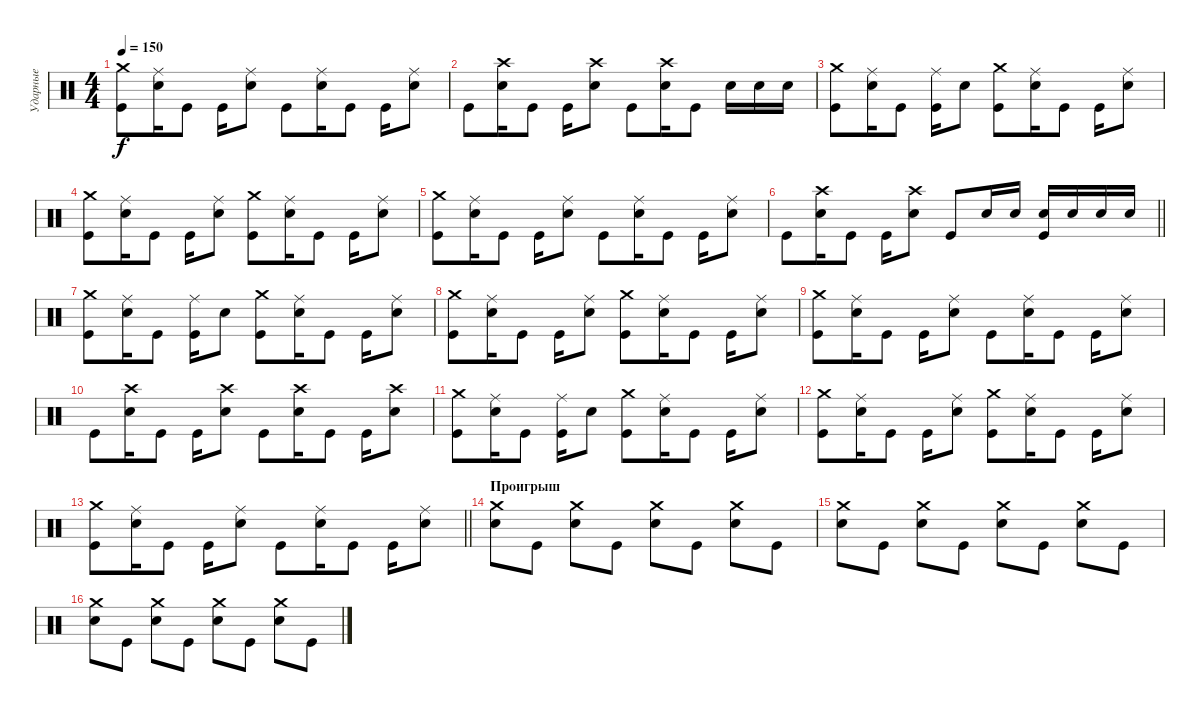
\track ("Ударные" "Ударные") {instrument percussion}
\staff {score}
\articulation defaults
\ts (4 4)
\tempo 150
\clef neutral
\ks c
("Crash medium (hit)" "Kick (hit)").8{dy f} ("Ride (middle)" "Electric Snare (hit)").16 "Kick (hit)".8 "Kick (hit)".16 ("Ride (middle)" "Electric Snare (hit)").8 "Kick (hit)".8 ("Ride (middle)" "Electric Snare (hit)").16 "Kick (hit)".8 "Kick (hit)".16 ("Ride (middle)" "Electric Snare (hit)").8 |
"Kick (hit)".8 ("Crash high (hit)" "Electric Snare (hit)").16 "Kick (hit)".8 "Kick (hit)".16 ("Crash high (hit)" "Electric Snare (hit)").8 "Kick (hit)".8 ("Crash high (hit)" "Electric Snare (hit)").16 "Kick (hit)".8 "Electric Snare (hit)".16 "Electric Snare (hit)".16 "Electric Snare (hit)".16 |
("Crash medium (hit)" "Kick (hit)").8 ("Ride (middle)" "Electric Snare (hit)").16 "Kick (hit)".8 ("Ride (middle)" "Kick (hit)").16 "Electric Snare (hit)".8 ("Crash medium (hit)" "Kick (hit)").8 ("Ride (middle)" "Electric Snare (hit)").16 "Kick (hit)".8 "Kick (hit)".16 ("Ride (middle)" "Electric Snare (hit)").8 |
("Crash medium (hit)" "Kick (hit)").8 ("Ride (middle)" "Electric Snare (hit)").16 "Kick (hit)".8 "Kick (hit)".16 ("Ride (middle)" "Electric Snare (hit)").8 ("Crash medium (hit)" "Kick (hit)").8 ("Ride (middle)" "Electric Snare (hit)").16 "Kick (hit)".8 "Kick (hit)".16 ("Ride (middle)" "Electric Snare (hit)").8 |
("Crash medium (hit)" "Kick (hit)").8 ("Ride (middle)" "Electric Snare (hit)").16 "Kick (hit)".8 "Kick (hit)".16 ("Ride (middle)" "Electric Snare (hit)").8 "Kick (hit)".8 ("Ride (middle)" "Electric Snare (hit)").16 "Kick (hit)".8 "Kick (hit)".16 ("Ride (middle)" "Electric Snare (hit)").8 |
\barLineRight lightlight "Kick (hit)".8
("Crash high (hit)" "Electric Snare (hit)").16 "Kick (hit)".8 "Kick (hit)".16 ("Crash high (hit)" "Electric Snare (hit)").8 "Kick (hit)".8 "Electric Snare (hit)".16 "Electric Snare (hit)".16 ("Kick (hit)" "Electric Snare (hit)").16 "Electric Snare (hit)".16 "Electric Snare (hit)".16 "Electric Snare (hit)".16 |
\section ("" " ")
("Crash medium (hit)" "Kick (hit)").8 ("Ride (middle)" "Electric Snare (hit)").16 "Kick (hit)".8 ("Ride (middle)" "Kick (hit)").16 "Electric Snare (hit)".8 ("Crash medium (hit)" "Kick (hit)").8 ("Ride (middle)" "Electric Snare (hit)").16 "Kick (hit)".8 "Kick (hit)".16 ("Ride (middle)" "Electric Snare (hit)").8 |
("Crash medium (hit)" "Kick (hit)").8 ("Ride (middle)" "Electric Snare (hit)").16 "Kick (hit)".8 "Kick (hit)".16 ("Ride (middle)" "Electric Snare (hit)").8 ("Crash medium (hit)" "Kick (hit)").8 ("Ride (middle)" "Electric Snare (hit)").16 "Kick (hit)".8 "Kick (hit)".16 ("Ride (middle)" "Electric Snare (hit)").8 |
("Crash medium (hit)" "Kick (hit)").8 ("Ride (middle)" "Electric Snare (hit)").16 "Kick (hit)".8 "Kick (hit)".16 ("Ride (middle)" "Electric Snare (hit)").8 "Kick (hit)".8 ("Ride (middle)" "Electric Snare (hit)").16 "Kick (hit)".8 "Kick (hit)".16 ("Ride (middle)" "Electric Snare (hit)").8 |
"Kick (hit)".8 ("Crash high (hit)" "Electric Snare (hit)").16 "Kick (hit)".8 "Kick (hit)".16 ("Crash high (hit)" "Electric Snare (hit)").8 "Kick (hit)".8 ("Crash high (hit)" "Electric Snare (hit)").16 "Kick (hit)".8 "Kick (hit)".16 ("Crash high (hit)" "Electric Snare (hit)").8 |
("Crash medium (hit)" "Kick (hit)").8 ("Ride (middle)" "Electric Snare (hit)").16 "Kick (hit)".8 ("Ride (middle)" "Kick (hit)").16 "Electric Snare (hit)".8 ("Crash medium (hit)" "Kick (hit)").8 ("Ride (middle)" "Electric Snare (hit)").16 "Kick (hit)".8 "Kick (hit)".16 ("Ride (middle)" "Electric Snare (hit)").8 |
("Crash medium (hit)" "Kick (hit)").8 ("Ride (middle)" "Electric Snare (hit)").16 "Kick (hit)".8 "Kick (hit)".16 ("Ride (middle)" "Electric Snare (hit)").8 ("Crash medium (hit)" "Kick (hit)").8 ("Ride (middle)" "Electric Snare (hit)").16 "Kick (hit)".8 "Kick (hit)".16 ("Ride (middle)" "Electric Snare (hit)").8 |
\barLineRight lightlight
("Crash medium (hit)" "Kick (hit)").8 ("Ride (middle)" "Electric Snare (hit)").16 "Kick (hit)".8 "Kick (hit)".16 ("Ride (middle)" "Electric Snare (hit)").8 "Kick (hit)".8 ("Ride (middle)" "Electric Snare (hit)").16 "Kick (hit)".8 "Kick (hit)".16 ("Ride (middle)" "Electric Snare (hit)").8 |
\section ("" "Проигрыш")
("Crash medium (hit)" "Electric Snare (hit)").8 "Kick (hit)".8 ("Crash medium (hit)" "Electric Snare (hit)").8 "Kick (hit)".8 ("Crash medium (hit)" "Electric Snare (hit)").8 "Kick (hit)".8 ("Crash medium (hit)" "Electric Snare (hit)").8 "Kick (hit)".8 |
("Crash medium (hit)" "Electric Snare (hit)").8 "Kick (hit)".8 ("Crash medium (hit)" "Electric Snare (hit)").8 "Kick (hit)".8 ("Crash medium (hit)" "Electric Snare (hit)").8 "Kick (hit)".8 ("Crash medium (hit)" "Electric Snare (hit)").8 "Kick (hit)".8 |
("Crash medium (hit)" "Electric Snare (hit)").8 "Kick (hit)".8 ("Crash medium (hit)" "Electric Snare (hit)").8 "Kick (hit)".8 ("Crash medium (hit)" "Electric Snare (hit)").8 "Kick (hit)".8 ("Crash medium (hit)" "Electric Snare (hit)").8 "Kick (hit)".8
